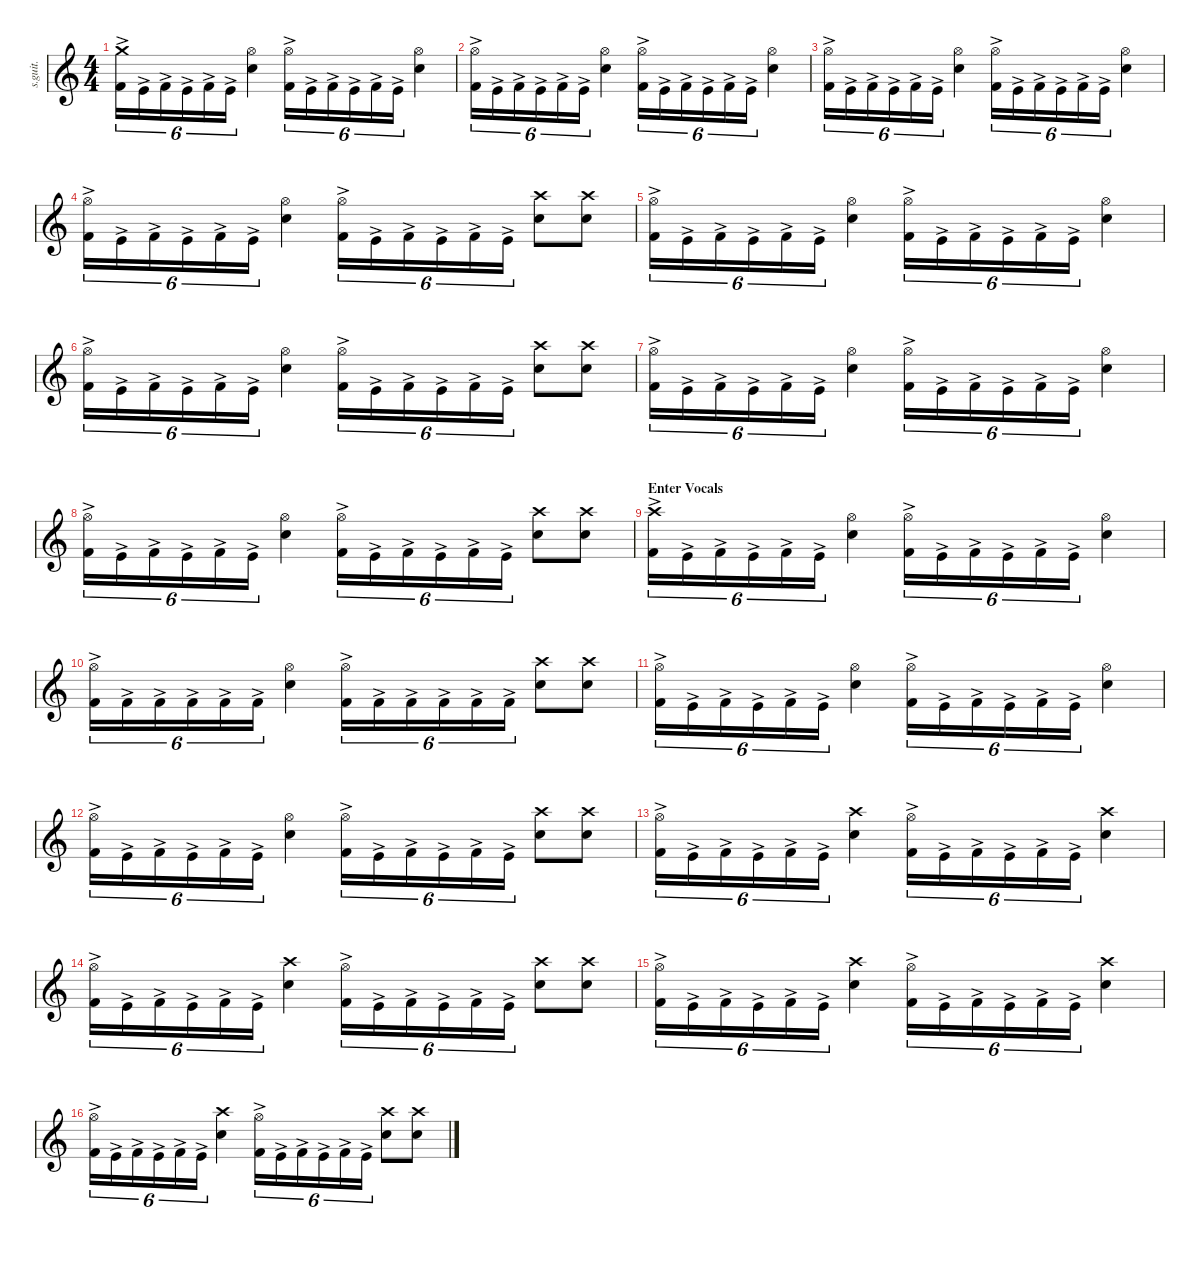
\defaultSystemsLayout 4
\hideDynamics
\bracketExtendMode nobrackets
\track ("Lars Ulrich - Drums" "s.guit.") {instrument percussion}
\staff {score}
\articulation defaults
\ts (4 4)
\tempo (108 hide)
\clef g2
\ks c
("Kick (hit) 2"{ac} "Crash medium (hit)").16{tu (6 4) lyrics (0 "") lyrics (1 "") lyrics (2 "") lyrics (3 "") lyrics (4 "") dy f} "Kick (hit)"{ac}.16{tu (6 4) lyrics (0 "") lyrics (1 "") lyrics (2 "") lyrics (3 "") lyrics (4 "")} "Kick (hit) 2"{ac}.16{tu (6 4) lyrics (0 "") lyrics (1 "") lyrics (2 "") lyrics (3 "") lyrics (4 "") dy mp} "Kick (hit)"{ac}.16{tu (6 4) lyrics (0 "") lyrics (1 "") lyrics (2 "") lyrics (3 "") lyrics (4 "")} "Kick (hit) 2"{ac}.16{tu (6 4) lyrics (0 "") lyrics (1 "") lyrics (2 "") lyrics (3 "") lyrics (4 "")} "Kick (hit)"{ac}.16{tu (6 4) lyrics (0 "") lyrics (1 "") lyrics (2 "") lyrics (3 "") lyrics (4 "")} ("Hi-Hat (open)" "Snare (hit) 2").4{lyrics (0 "") lyrics (1 "") lyrics (2 "") lyrics (3 "") lyrics (4 "") dy f} ("Hi-Hat (open)" "Kick (hit) 2"{ac}).16{tu (6 4) lyrics (0 "") lyrics (1 "") lyrics (2 "") lyrics (3 "") lyrics (4 "")} "Kick (hit)"{ac}.16{tu (6 4) lyrics (0 "") lyrics (1 "") lyrics (2 "") lyrics (3 "") lyrics (4 "")} "Kick (hit) 2"{ac}.16{tu (6 4) lyrics (0 "") lyrics (1 "") lyrics (2 "") lyrics (3 "") lyrics (4 "") dy mp} "Kick (hit)"{ac}.16{tu (6 4) lyrics (0 "") lyrics (1 "") lyrics (2 "") lyrics (3 "") lyrics (4 "")} "Kick (hit) 2"{ac}.16{tu (6 4) lyrics (0 "") lyrics (1 "") lyrics (2 "") lyrics (3 "") lyrics (4 "")} "Kick (hit)"{ac}.16{tu (6 4) lyrics (0 "") lyrics (1 "") lyrics (2 "") lyrics (3 "") lyrics (4 "")} ("Hi-Hat (open)" "Snare (hit) 2").4{lyrics (0 "") lyrics (1 "") lyrics (2 "") lyrics (3 "") lyrics (4 "") dy f} |
("Hi-Hat (open)" "Kick (hit) 2"{ac}).16{tu (6 4) lyrics (0 "") lyrics (1 "") lyrics (2 "") lyrics (3 "") lyrics (4 "")} "Kick (hit)"{ac}.16{tu (6 4) lyrics (0 "") lyrics (1 "") lyrics (2 "") lyrics (3 "") lyrics (4 "")} "Kick (hit) 2"{ac}.16{tu (6 4) lyrics (0 "") lyrics (1 "") lyrics (2 "") lyrics (3 "") lyrics (4 "") dy mp} "Kick (hit)"{ac}.16{tu (6 4) lyrics (0 "") lyrics (1 "") lyrics (2 "") lyrics (3 "") lyrics (4 "")} "Kick (hit) 2"{ac}.16{tu (6 4) lyrics (0 "") lyrics (1 "") lyrics (2 "") lyrics (3 "") lyrics (4 "")} "Kick (hit)"{ac}.16{tu (6 4) lyrics (0 "") lyrics (1 "") lyrics (2 "") lyrics (3 "") lyrics (4 "")} ("Hi-Hat (open)" "Snare (hit) 2").4{lyrics (0 "") lyrics (1 "") lyrics (2 "") lyrics (3 "") lyrics (4 "") dy f} ("Hi-Hat (open)" "Kick (hit) 2"{ac}).16{tu (6 4) lyrics (0 "") lyrics (1 "") lyrics (2 "") lyrics (3 "") lyrics (4 "")} "Kick (hit)"{ac}.16{tu (6 4) lyrics (0 "") lyrics (1 "") lyrics (2 "") lyrics (3 "") lyrics (4 "")} "Kick (hit) 2"{ac}.16{tu (6 4) lyrics (0 "") lyrics (1 "") lyrics (2 "") lyrics (3 "") lyrics (4 "") dy mp} "Kick (hit)"{ac}.16{tu (6 4) lyrics (0 "") lyrics (1 "") lyrics (2 "") lyrics (3 "") lyrics (4 "")} "Kick (hit) 2"{ac}.16{tu (6 4) lyrics (0 "") lyrics (1 "") lyrics (2 "") lyrics (3 "") lyrics (4 "")} "Kick (hit)"{ac}.16{tu (6 4) lyrics (0 "") lyrics (1 "") lyrics (2 "") lyrics (3 "") lyrics (4 "")} ("Hi-Hat (open)" "Snare (hit) 2").4{lyrics (0 "") lyrics (1 "") lyrics (2 "") lyrics (3 "") lyrics (4 "") dy f} |
("Hi-Hat (open)" "Kick (hit) 2"{ac}).16{tu (6 4) lyrics (0 "") lyrics (1 "") lyrics (2 "") lyrics (3 "") lyrics (4 "")} "Kick (hit)"{ac}.16{tu (6 4) lyrics (0 "") lyrics (1 "") lyrics (2 "") lyrics (3 "") lyrics (4 "")} "Kick (hit) 2"{ac}.16{tu (6 4) lyrics (0 "") lyrics (1 "") lyrics (2 "") lyrics (3 "") lyrics (4 "") dy mp} "Kick (hit)"{ac}.16{tu (6 4) lyrics (0 "") lyrics (1 "") lyrics (2 "") lyrics (3 "") lyrics (4 "")} "Kick (hit) 2"{ac}.16{tu (6 4) lyrics (0 "") lyrics (1 "") lyrics (2 "") lyrics (3 "") lyrics (4 "")} "Kick (hit)"{ac}.16{tu (6 4) lyrics (0 "") lyrics (1 "") lyrics (2 "") lyrics (3 "") lyrics (4 "")} ("Hi-Hat (open)" "Snare (hit) 2").4{lyrics (0 "") lyrics (1 "") lyrics (2 "") lyrics (3 "") lyrics (4 "") dy f} ("Hi-Hat (open)" "Kick (hit) 2"{ac}).16{tu (6 4) lyrics (0 "") lyrics (1 "") lyrics (2 "") lyrics (3 "") lyrics (4 "")} "Kick (hit)"{ac}.16{tu (6 4) lyrics (0 "") lyrics (1 "") lyrics (2 "") lyrics (3 "") lyrics (4 "")} "Kick (hit) 2"{ac}.16{tu (6 4) lyrics (0 "") lyrics (1 "") lyrics (2 "") lyrics (3 "") lyrics (4 "") dy mp} "Kick (hit)"{ac}.16{tu (6 4) lyrics (0 "") lyrics (1 "") lyrics (2 "") lyrics (3 "") lyrics (4 "")} "Kick (hit) 2"{ac}.16{tu (6 4) lyrics (0 "") lyrics (1 "") lyrics (2 "") lyrics (3 "") lyrics (4 "")} "Kick (hit)"{ac}.16{tu (6 4) lyrics (0 "") lyrics (1 "") lyrics (2 "") lyrics (3 "") lyrics (4 "")} ("Hi-Hat (open)" "Snare (hit) 2").4{lyrics (0 "") lyrics (1 "") lyrics (2 "") lyrics (3 "") lyrics (4 "") dy f} |
("Hi-Hat (open)" "Kick (hit) 2"{ac}).16{tu (6 4) lyrics (0 "") lyrics (1 "") lyrics (2 "") lyrics (3 "") lyrics (4 "")} "Kick (hit)"{ac}.16{tu (6 4) lyrics (0 "") lyrics (1 "") lyrics (2 "") lyrics (3 "") lyrics (4 "")} "Kick (hit) 2"{ac}.16{tu (6 4) lyrics (0 "") lyrics (1 "") lyrics (2 "") lyrics (3 "") lyrics (4 "") dy mp} "Kick (hit)"{ac}.16{tu (6 4) lyrics (0 "") lyrics (1 "") lyrics (2 "") lyrics (3 "") lyrics (4 "")} "Kick (hit) 2"{ac}.16{tu (6 4) lyrics (0 "") lyrics (1 "") lyrics (2 "") lyrics (3 "") lyrics (4 "")} "Kick (hit)"{ac}.16{tu (6 4) lyrics (0 "") lyrics (1 "") lyrics (2 "") lyrics (3 "") lyrics (4 "")} ("Hi-Hat (open)" "Snare (hit) 2").4{lyrics (0 "") lyrics (1 "") lyrics (2 "") lyrics (3 "") lyrics (4 "") dy f} ("Hi-Hat (open)" "Kick (hit) 2"{ac}).16{tu (6 4) lyrics (0 "") lyrics (1 "") lyrics (2 "") lyrics (3 "") lyrics (4 "")} "Kick (hit)"{ac}.16{tu (6 4) lyrics (0 "") lyrics (1 "") lyrics (2 "") lyrics (3 "") lyrics (4 "")} "Kick (hit) 2"{ac}.16{tu (6 4) lyrics (0 "") lyrics (1 "") lyrics (2 "") lyrics (3 "") lyrics (4 "") dy mp} "Kick (hit)"{ac}.16{tu (6 4) lyrics (0 "") lyrics (1 "") lyrics (2 "") lyrics (3 "") lyrics (4 "")} "Kick (hit) 2"{ac}.16{tu (6 4) lyrics (0 "") lyrics (1 "") lyrics (2 "") lyrics (3 "") lyrics (4 "")} "Kick (hit)"{ac}.16{tu (6 4) lyrics (0 "") lyrics (1 "") lyrics (2 "") lyrics (3 "") lyrics (4 "")} ("Snare (hit) 2" "Crash high (hit)").8{lyrics (0 "") lyrics (1 "") lyrics (2 "") lyrics (3 "") lyrics (4 "") dy f} ("Snare (hit) 2" "Crash high (hit)").8{lyrics (0 "") lyrics (1 "") lyrics (2 "") lyrics (3 "") lyrics (4 "")} |
("Hi-Hat (open)" "Kick (hit) 2"{ac}).16{tu (6 4) lyrics (0 "") lyrics (1 "") lyrics (2 "") lyrics (3 "") lyrics (4 "")} "Kick (hit)"{ac}.16{tu (6 4) lyrics (0 "") lyrics (1 "") lyrics (2 "") lyrics (3 "") lyrics (4 "")} "Kick (hit) 2"{ac}.16{tu (6 4) lyrics (0 "") lyrics (1 "") lyrics (2 "") lyrics (3 "") lyrics (4 "") dy mp} "Kick (hit)"{ac}.16{tu (6 4) lyrics (0 "") lyrics (1 "") lyrics (2 "") lyrics (3 "") lyrics (4 "")} "Kick (hit) 2"{ac}.16{tu (6 4) lyrics (0 "") lyrics (1 "") lyrics (2 "") lyrics (3 "") lyrics (4 "")} "Kick (hit)"{ac}.16{tu (6 4) lyrics (0 "") lyrics (1 "") lyrics (2 "") lyrics (3 "") lyrics (4 "")} ("Hi-Hat (open)" "Snare (hit) 2").4{lyrics (0 "") lyrics (1 "") lyrics (2 "") lyrics (3 "") lyrics (4 "") dy f} ("Hi-Hat (open)" "Kick (hit) 2"{ac}).16{tu (6 4) lyrics (0 "") lyrics (1 "") lyrics (2 "") lyrics (3 "") lyrics (4 "")} "Kick (hit)"{ac}.16{tu (6 4) lyrics (0 "") lyrics (1 "") lyrics (2 "") lyrics (3 "") lyrics (4 "")} "Kick (hit) 2"{ac}.16{tu (6 4) lyrics (0 "") lyrics (1 "") lyrics (2 "") lyrics (3 "") lyrics (4 "") dy mp} "Kick (hit)"{ac}.16{tu (6 4) lyrics (0 "") lyrics (1 "") lyrics (2 "") lyrics (3 "") lyrics (4 "")} "Kick (hit) 2"{ac}.16{tu (6 4) lyrics (0 "") lyrics (1 "") lyrics (2 "") lyrics (3 "") lyrics (4 "")} "Kick (hit)"{ac}.16{tu (6 4) lyrics (0 "") lyrics (1 "") lyrics (2 "") lyrics (3 "") lyrics (4 "")} ("Hi-Hat (open)" "Snare (hit) 2").4{lyrics (0 "") lyrics (1 "") lyrics (2 "") lyrics (3 "") lyrics (4 "") dy f} |
("Hi-Hat (open)" "Kick (hit) 2"{ac}).16{tu (6 4) lyrics (0 "") lyrics (1 "") lyrics (2 "") lyrics (3 "") lyrics (4 "")} "Kick (hit)"{ac}.16{tu (6 4) lyrics (0 "") lyrics (1 "") lyrics (2 "") lyrics (3 "") lyrics (4 "")} "Kick (hit) 2"{ac}.16{tu (6 4) lyrics (0 "") lyrics (1 "") lyrics (2 "") lyrics (3 "") lyrics (4 "") dy mp} "Kick (hit)"{ac}.16{tu (6 4) lyrics (0 "") lyrics (1 "") lyrics (2 "") lyrics (3 "") lyrics (4 "")} "Kick (hit) 2"{ac}.16{tu (6 4) lyrics (0 "") lyrics (1 "") lyrics (2 "") lyrics (3 "") lyrics (4 "")} "Kick (hit)"{ac}.16{tu (6 4) lyrics (0 "") lyrics (1 "") lyrics (2 "") lyrics (3 "") lyrics (4 "")} ("Hi-Hat (open)" "Snare (hit) 2").4{lyrics (0 "") lyrics (1 "") lyrics (2 "") lyrics (3 "") lyrics (4 "") dy f} ("Hi-Hat (open)" "Kick (hit) 2"{ac}).16{tu (6 4) lyrics (0 "") lyrics (1 "") lyrics (2 "") lyrics (3 "") lyrics (4 "")} "Kick (hit)"{ac}.16{tu (6 4) lyrics (0 "") lyrics (1 "") lyrics (2 "") lyrics (3 "") lyrics (4 "")} "Kick (hit) 2"{ac}.16{tu (6 4) lyrics (0 "") lyrics (1 "") lyrics (2 "") lyrics (3 "") lyrics (4 "") dy mp} "Kick (hit)"{ac}.16{tu (6 4) lyrics (0 "") lyrics (1 "") lyrics (2 "") lyrics (3 "") lyrics (4 "")} "Kick (hit) 2"{ac}.16{tu (6 4) lyrics (0 "") lyrics (1 "") lyrics (2 "") lyrics (3 "") lyrics (4 "")} "Kick (hit)"{ac}.16{tu (6 4) lyrics (0 "") lyrics (1 "") lyrics (2 "") lyrics (3 "") lyrics (4 "")} ("Snare (hit) 2" "Crash high (hit)").8{lyrics (0 "") lyrics (1 "") lyrics (2 "") lyrics (3 "") lyrics (4 "") dy f} ("Snare (hit) 2" "Crash high (hit)").8{lyrics (0 "") lyrics (1 "") lyrics (2 "") lyrics (3 "") lyrics (4 "")} |
("Hi-Hat (open)" "Kick (hit) 2"{ac}).16{tu (6 4) lyrics (0 "") lyrics (1 "") lyrics (2 "") lyrics (3 "") lyrics (4 "")} "Kick (hit)"{ac}.16{tu (6 4) lyrics (0 "") lyrics (1 "") lyrics (2 "") lyrics (3 "") lyrics (4 "")} "Kick (hit) 2"{ac}.16{tu (6 4) lyrics (0 "") lyrics (1 "") lyrics (2 "") lyrics (3 "") lyrics (4 "") dy mp} "Kick (hit)"{ac}.16{tu (6 4) lyrics (0 "") lyrics (1 "") lyrics (2 "") lyrics (3 "") lyrics (4 "")} "Kick (hit) 2"{ac}.16{tu (6 4) lyrics (0 "") lyrics (1 "") lyrics (2 "") lyrics (3 "") lyrics (4 "")} "Kick (hit)"{ac}.16{tu (6 4) lyrics (0 "") lyrics (1 "") lyrics (2 "") lyrics (3 "") lyrics (4 "")} ("Hi-Hat (open)" "Snare (hit) 2").4{lyrics (0 "") lyrics (1 "") lyrics (2 "") lyrics (3 "") lyrics (4 "") dy f} ("Hi-Hat (open)" "Kick (hit) 2"{ac}).16{tu (6 4) lyrics (0 "") lyrics (1 "") lyrics (2 "") lyrics (3 "") lyrics (4 "")} "Kick (hit)"{ac}.16{tu (6 4) lyrics (0 "") lyrics (1 "") lyrics (2 "") lyrics (3 "") lyrics (4 "")} "Kick (hit) 2"{ac}.16{tu (6 4) lyrics (0 "") lyrics (1 "") lyrics (2 "") lyrics (3 "") lyrics (4 "") dy mp} "Kick (hit)"{ac}.16{tu (6 4) lyrics (0 "") lyrics (1 "") lyrics (2 "") lyrics (3 "") lyrics (4 "")} "Kick (hit) 2"{ac}.16{tu (6 4) lyrics (0 "") lyrics (1 "") lyrics (2 "") lyrics (3 "") lyrics (4 "")} "Kick (hit)"{ac}.16{tu (6 4) lyrics (0 "") lyrics (1 "") lyrics (2 "") lyrics (3 "") lyrics (4 "")} ("Hi-Hat (open)" "Snare (hit) 2").4{lyrics (0 "") lyrics (1 "") lyrics (2 "") lyrics (3 "") lyrics (4 "") dy f} |
("Hi-Hat (open)" "Kick (hit) 2"{ac}).16{tu (6 4) lyrics (0 "") lyrics (1 "") lyrics (2 "") lyrics (3 "") lyrics (4 "")} "Kick (hit)"{ac}.16{tu (6 4) lyrics (0 "") lyrics (1 "") lyrics (2 "") lyrics (3 "") lyrics (4 "")} "Kick (hit) 2"{ac}.16{tu (6 4) lyrics (0 "") lyrics (1 "") lyrics (2 "") lyrics (3 "") lyrics (4 "") dy mp} "Kick (hit)"{ac}.16{tu (6 4) lyrics (0 "") lyrics (1 "") lyrics (2 "") lyrics (3 "") lyrics (4 "")} "Kick (hit) 2"{ac}.16{tu (6 4) lyrics (0 "") lyrics (1 "") lyrics (2 "") lyrics (3 "") lyrics (4 "")} "Kick (hit)"{ac}.16{tu (6 4) lyrics (0 "") lyrics (1 "") lyrics (2 "") lyrics (3 "") lyrics (4 "")} ("Hi-Hat (open)" "Snare (hit) 2").4{lyrics (0 "") lyrics (1 "") lyrics (2 "") lyrics (3 "") lyrics (4 "") dy f} ("Hi-Hat (open)" "Kick (hit) 2"{ac}).16{tu (6 4) lyrics (0 "") lyrics (1 "") lyrics (2 "") lyrics (3 "") lyrics (4 "")} "Kick (hit)"{ac}.16{tu (6 4) lyrics (0 "") lyrics (1 "") lyrics (2 "") lyrics (3 "") lyrics (4 "")} "Kick (hit) 2"{ac}.16{tu (6 4) lyrics (0 "") lyrics (1 "") lyrics (2 "") lyrics (3 "") lyrics (4 "") dy mp} "Kick (hit)"{ac}.16{tu (6 4) lyrics (0 "") lyrics (1 "") lyrics (2 "") lyrics (3 "") lyrics (4 "")} "Kick (hit) 2"{ac}.16{tu (6 4) lyrics (0 "") lyrics (1 "") lyrics (2 "") lyrics (3 "") lyrics (4 "")} "Kick (hit)"{ac}.16{tu (6 4) lyrics (0 "") lyrics (1 "") lyrics (2 "") lyrics (3 "") lyrics (4 "")} ("Snare (hit) 2" "Crash high (hit)").8{lyrics (0 "") lyrics (1 "") lyrics (2 "") lyrics (3 "") lyrics (4 "") dy f} ("Snare (hit) 2" "Crash high (hit)").8{lyrics (0 "") lyrics (1 "") lyrics (2 "") lyrics (3 "") lyrics (4 "")} |
\section ("" "Enter Vocals")
("Kick (hit) 2"{ac} "Crash high (hit)").16{tu (6 4) lyrics (0 "") lyrics (1 "") lyrics (2 "") lyrics (3 "") lyrics (4 "")} "Kick (hit)"{ac}.16{tu (6 4) lyrics (0 "") lyrics (1 "") lyrics (2 "") lyrics (3 "") lyrics (4 "")} "Kick (hit) 2"{ac}.16{tu (6 4) lyrics (0 "") lyrics (1 "") lyrics (2 "") lyrics (3 "") lyrics (4 "") dy mp} "Kick (hit)"{ac}.16{tu (6 4) lyrics (0 "") lyrics (1 "") lyrics (2 "") lyrics (3 "") lyrics (4 "")} "Kick (hit) 2"{ac}.16{tu (6 4) lyrics (0 "") lyrics (1 "") lyrics (2 "") lyrics (3 "") lyrics (4 "")} "Kick (hit)"{ac}.16{tu (6 4) lyrics (0 "") lyrics (1 "") lyrics (2 "") lyrics (3 "") lyrics (4 "")} ("Hi-Hat (open)" "Snare (hit) 2").4{lyrics (0 "") lyrics (1 "") lyrics (2 "") lyrics (3 "") lyrics (4 "") dy f} ("Hi-Hat (open)" "Kick (hit) 2"{ac}).16{tu (6 4) lyrics (0 "") lyrics (1 "") lyrics (2 "") lyrics (3 "") lyrics (4 "")} "Kick (hit)"{ac}.16{tu (6 4) lyrics (0 "") lyrics (1 "") lyrics (2 "") lyrics (3 "") lyrics (4 "")} "Kick (hit) 2"{ac}.16{tu (6 4) lyrics (0 "") lyrics (1 "") lyrics (2 "") lyrics (3 "") lyrics (4 "") dy mp} "Kick (hit)"{ac}.16{tu (6 4) lyrics (0 "") lyrics (1 "") lyrics (2 "") lyrics (3 "") lyrics (4 "")} "Kick (hit) 2"{ac}.16{tu (6 4) lyrics (0 "") lyrics (1 "") lyrics (2 "") lyrics (3 "") lyrics (4 "")} "Kick (hit)"{ac}.16{tu (6 4) lyrics (0 "") lyrics (1 "") lyrics (2 "") lyrics (3 "") lyrics (4 "")} ("Hi-Hat (open)" "Snare (hit) 2").4{lyrics (0 "") lyrics (1 "") lyrics (2 "") lyrics (3 "") lyrics (4 "") dy f} |
("Hi-Hat (open)" "Kick (hit) 2"{ac}).16{tu (6 4) lyrics (0 "") lyrics (1 "") lyrics (2 "") lyrics (3 "") lyrics (4 "")} "Kick (hit) 2"{ac}.16{tu (6 4) lyrics (0 "") lyrics (1 "") lyrics (2 "") lyrics (3 "") lyrics (4 "") dy mp} "Kick (hit) 2"{ac}.16{tu (6 4) lyrics (0 "") lyrics (1 "") lyrics (2 "") lyrics (3 "") lyrics (4 "")} "Kick (hit) 2"{ac}.16{tu (6 4) lyrics (0 "") lyrics (1 "") lyrics (2 "") lyrics (3 "") lyrics (4 "")} "Kick (hit) 2"{ac}.16{tu (6 4) lyrics (0 "") lyrics (1 "") lyrics (2 "") lyrics (3 "") lyrics (4 "")} "Kick (hit) 2"{ac}.16{tu (6 4) lyrics (0 "") lyrics (1 "") lyrics (2 "") lyrics (3 "") lyrics (4 "")} ("Hi-Hat (open)" "Snare (hit) 2").4{lyrics (0 "") lyrics (1 "") lyrics (2 "") lyrics (3 "") lyrics (4 "") dy f} ("Hi-Hat (open)" "Kick (hit) 2"{ac}).16{tu (6 4) lyrics (0 "") lyrics (1 "") lyrics (2 "") lyrics (3 "") lyrics (4 "")} "Kick (hit) 2"{ac}.16{tu (6 4) lyrics (0 "") lyrics (1 "") lyrics (2 "") lyrics (3 "") lyrics (4 "") dy mp} "Kick (hit) 2"{ac}.16{tu (6 4) lyrics (0 "") lyrics (1 "") lyrics (2 "") lyrics (3 "") lyrics (4 "")} "Kick (hit) 2"{ac}.16{tu (6 4) lyrics (0 "") lyrics (1 "") lyrics (2 "") lyrics (3 "") lyrics (4 "")} "Kick (hit) 2"{ac}.16{tu (6 4) lyrics (0 "") lyrics (1 "") lyrics (2 "") lyrics (3 "") lyrics (4 "")} "Kick (hit) 2"{ac}.16{tu (6 4) lyrics (0 "") lyrics (1 "") lyrics (2 "") lyrics (3 "") lyrics (4 "")} ("Snare (hit) 2" "Crash high (hit)").8{lyrics (0 "") lyrics (1 "") lyrics (2 "") lyrics (3 "") lyrics (4 "") dy f} ("Crash high (hit)" "Snare (hit) 2").8{lyrics (0 "") lyrics (1 "") lyrics (2 "") lyrics (3 "") lyrics (4 "")} |
("Hi-Hat (open)" "Kick (hit) 2"{ac}).16{tu (6 4) lyrics (0 "") lyrics (1 "") lyrics (2 "") lyrics (3 "") lyrics (4 "")} "Kick (hit)"{ac}.16{tu (6 4) lyrics (0 "") lyrics (1 "") lyrics (2 "") lyrics (3 "") lyrics (4 "")} "Kick (hit) 2"{ac}.16{tu (6 4) lyrics (0 "") lyrics (1 "") lyrics (2 "") lyrics (3 "") lyrics (4 "") dy mp} "Kick (hit)"{ac}.16{tu (6 4) lyrics (0 "") lyrics (1 "") lyrics (2 "") lyrics (3 "") lyrics (4 "")} "Kick (hit) 2"{ac}.16{tu (6 4) lyrics (0 "") lyrics (1 "") lyrics (2 "") lyrics (3 "") lyrics (4 "")} "Kick (hit)"{ac}.16{tu (6 4) lyrics (0 "") lyrics (1 "") lyrics (2 "") lyrics (3 "") lyrics (4 "")} ("Hi-Hat (open)" "Snare (hit) 2").4{lyrics (0 "") lyrics (1 "") lyrics (2 "") lyrics (3 "") lyrics (4 "") dy f} ("Hi-Hat (open)" "Kick (hit) 2"{ac}).16{tu (6 4) lyrics (0 "") lyrics (1 "") lyrics (2 "") lyrics (3 "") lyrics (4 "")} "Kick (hit)"{ac}.16{tu (6 4) lyrics (0 "") lyrics (1 "") lyrics (2 "") lyrics (3 "") lyrics (4 "")} "Kick (hit) 2"{ac}.16{tu (6 4) lyrics (0 "") lyrics (1 "") lyrics (2 "") lyrics (3 "") lyrics (4 "") dy mp} "Kick (hit)"{ac}.16{tu (6 4) lyrics (0 "") lyrics (1 "") lyrics (2 "") lyrics (3 "") lyrics (4 "")} "Kick (hit) 2"{ac}.16{tu (6 4) lyrics (0 "") lyrics (1 "") lyrics (2 "") lyrics (3 "") lyrics (4 "")} "Kick (hit)"{ac}.16{tu (6 4) lyrics (0 "") lyrics (1 "") lyrics (2 "") lyrics (3 "") lyrics (4 "")} ("Hi-Hat (open)" "Snare (hit) 2").4{lyrics (0 "") lyrics (1 "") lyrics (2 "") lyrics (3 "") lyrics (4 "") dy f} |
("Hi-Hat (open)" "Kick (hit) 2"{ac}).16{tu (6 4) lyrics (0 "") lyrics (1 "") lyrics (2 "") lyrics (3 "") lyrics (4 "")} "Kick (hit)"{ac}.16{tu (6 4) lyrics (0 "") lyrics (1 "") lyrics (2 "") lyrics (3 "") lyrics (4 "")} "Kick (hit) 2"{ac}.16{tu (6 4) lyrics (0 "") lyrics (1 "") lyrics (2 "") lyrics (3 "") lyrics (4 "") dy mp} "Kick (hit)"{ac}.16{tu (6 4) lyrics (0 "") lyrics (1 "") lyrics (2 "") lyrics (3 "") lyrics (4 "")} "Kick (hit) 2"{ac}.16{tu (6 4) lyrics (0 "") lyrics (1 "") lyrics (2 "") lyrics (3 "") lyrics (4 "")} "Kick (hit)"{ac}.16{tu (6 4) lyrics (0 "") lyrics (1 "") lyrics (2 "") lyrics (3 "") lyrics (4 "")} ("Hi-Hat (open)" "Snare (hit) 2").4{lyrics (0 "") lyrics (1 "") lyrics (2 "") lyrics (3 "") lyrics (4 "") dy f} ("Hi-Hat (open)" "Kick (hit) 2"{ac}).16{tu (6 4) lyrics (0 "") lyrics (1 "") lyrics (2 "") lyrics (3 "") lyrics (4 "")} "Kick (hit)"{ac}.16{tu (6 4) lyrics (0 "") lyrics (1 "") lyrics (2 "") lyrics (3 "") lyrics (4 "")} "Kick (hit) 2"{ac}.16{tu (6 4) lyrics (0 "") lyrics (1 "") lyrics (2 "") lyrics (3 "") lyrics (4 "") dy mp} "Kick (hit)"{ac}.16{tu (6 4) lyrics (0 "") lyrics (1 "") lyrics (2 "") lyrics (3 "") lyrics (4 "")} "Kick (hit) 2"{ac}.16{tu (6 4) lyrics (0 "") lyrics (1 "") lyrics (2 "") lyrics (3 "") lyrics (4 "")} "Kick (hit)"{ac}.16{tu (6 4) lyrics (0 "") lyrics (1 "") lyrics (2 "") lyrics (3 "") lyrics (4 "")} ("Snare (hit) 2" "Crash high (hit)").8{lyrics (0 "") lyrics (1 "") lyrics (2 "") lyrics (3 "") lyrics (4 "") dy f} ("Snare (hit) 2" "Crash high (hit)").8{lyrics (0 "") lyrics (1 "") lyrics (2 "") lyrics (3 "") lyrics (4 "")} |
("Hi-Hat (open)" "Kick (hit) 2"{ac}).16{tu (6 4) lyrics (0 "") lyrics (1 "") lyrics (2 "") lyrics (3 "") lyrics (4 "")} "Kick (hit)"{ac}.16{tu (6 4) lyrics (0 "") lyrics (1 "") lyrics (2 "") lyrics (3 "") lyrics (4 "")} "Kick (hit) 2"{ac}.16{tu (6 4) lyrics (0 "") lyrics (1 "") lyrics (2 "") lyrics (3 "") lyrics (4 "") dy mp} "Kick (hit)"{ac}.16{tu (6 4) lyrics (0 "") lyrics (1 "") lyrics (2 "") lyrics (3 "") lyrics (4 "")} "Kick (hit) 2"{ac}.16{tu (6 4) lyrics (0 "") lyrics (1 "") lyrics (2 "") lyrics (3 "") lyrics (4 "")} "Kick (hit)"{ac}.16{tu (6 4) lyrics (0 "") lyrics (1 "") lyrics (2 "") lyrics (3 "") lyrics (4 "")} ("Snare (hit) 2" "Crash high (hit)").4{lyrics (0 "") lyrics (1 "") lyrics (2 "") lyrics (3 "") lyrics (4 "") dy f} ("Hi-Hat (open)" "Kick (hit) 2"{ac}).16{tu (6 4) lyrics (0 "") lyrics (1 "") lyrics (2 "") lyrics (3 "") lyrics (4 "")} "Kick (hit)"{ac}.16{tu (6 4) lyrics (0 "") lyrics (1 "") lyrics (2 "") lyrics (3 "") lyrics (4 "")} "Kick (hit) 2"{ac}.16{tu (6 4) lyrics (0 "") lyrics (1 "") lyrics (2 "") lyrics (3 "") lyrics (4 "") dy mp} "Kick (hit)"{ac}.16{tu (6 4) lyrics (0 "") lyrics (1 "") lyrics (2 "") lyrics (3 "") lyrics (4 "")} "Kick (hit) 2"{ac}.16{tu (6 4) lyrics (0 "") lyrics (1 "") lyrics (2 "") lyrics (3 "") lyrics (4 "")} "Kick (hit)"{ac}.16{tu (6 4) lyrics (0 "") lyrics (1 "") lyrics (2 "") lyrics (3 "") lyrics (4 "")} ("Snare (hit) 2" "Crash high (hit)").4{lyrics (0 "") lyrics (1 "") lyrics (2 "") lyrics (3 "") lyrics (4 "") dy f} |
("Hi-Hat (open)" "Kick (hit) 2"{ac}).16{tu (6 4) lyrics (0 "") lyrics (1 "") lyrics (2 "") lyrics (3 "") lyrics (4 "")} "Kick (hit)"{ac}.16{tu (6 4) lyrics (0 "") lyrics (1 "") lyrics (2 "") lyrics (3 "") lyrics (4 "")} "Kick (hit) 2"{ac}.16{tu (6 4) lyrics (0 "") lyrics (1 "") lyrics (2 "") lyrics (3 "") lyrics (4 "") dy mp} "Kick (hit)"{ac}.16{tu (6 4) lyrics (0 "") lyrics (1 "") lyrics (2 "") lyrics (3 "") lyrics (4 "")} "Kick (hit) 2"{ac}.16{tu (6 4) lyrics (0 "") lyrics (1 "") lyrics (2 "") lyrics (3 "") lyrics (4 "")} "Kick (hit)"{ac}.16{tu (6 4) lyrics (0 "") lyrics (1 "") lyrics (2 "") lyrics (3 "") lyrics (4 "")} ("Snare (hit) 2" "Crash high (hit)").4{lyrics (0 "") lyrics (1 "") lyrics (2 "") lyrics (3 "") lyrics (4 "") dy f} ("Hi-Hat (open)" "Kick (hit) 2"{ac}).16{tu (6 4) lyrics (0 "") lyrics (1 "") lyrics (2 "") lyrics (3 "") lyrics (4 "")} "Kick (hit)"{ac}.16{tu (6 4) lyrics (0 "") lyrics (1 "") lyrics (2 "") lyrics (3 "") lyrics (4 "")} "Kick (hit) 2"{ac}.16{tu (6 4) lyrics (0 "") lyrics (1 "") lyrics (2 "") lyrics (3 "") lyrics (4 "") dy mp} "Kick (hit)"{ac}.16{tu (6 4) lyrics (0 "") lyrics (1 "") lyrics (2 "") lyrics (3 "") lyrics (4 "")} "Kick (hit) 2"{ac}.16{tu (6 4) lyrics (0 "") lyrics (1 "") lyrics (2 "") lyrics (3 "") lyrics (4 "")} "Kick (hit)"{ac}.16{tu (6 4) lyrics (0 "") lyrics (1 "") lyrics (2 "") lyrics (3 "") lyrics (4 "")} ("Snare (hit) 2" "Crash high (hit)").8{lyrics (0 "") lyrics (1 "") lyrics (2 "") lyrics (3 "") lyrics (4 "") dy f} ("Snare (hit) 2" "Crash high (hit)").8{lyrics (0 "") lyrics (1 "") lyrics (2 "") lyrics (3 "") lyrics (4 "")} |
("Hi-Hat (open)" "Kick (hit) 2"{ac}).16{tu (6 4) lyrics (0 "") lyrics (1 "") lyrics (2 "") lyrics (3 "") lyrics (4 "")} "Kick (hit)"{ac}.16{tu (6 4) lyrics (0 "") lyrics (1 "") lyrics (2 "") lyrics (3 "") lyrics (4 "")} "Kick (hit) 2"{ac}.16{tu (6 4) lyrics (0 "") lyrics (1 "") lyrics (2 "") lyrics (3 "") lyrics (4 "") dy mp} "Kick (hit)"{ac}.16{tu (6 4) lyrics (0 "") lyrics (1 "") lyrics (2 "") lyrics (3 "") lyrics (4 "")} "Kick (hit) 2"{ac}.16{tu (6 4) lyrics (0 "") lyrics (1 "") lyrics (2 "") lyrics (3 "") lyrics (4 "")} "Kick (hit)"{ac}.16{tu (6 4) lyrics (0 "") lyrics (1 "") lyrics (2 "") lyrics (3 "") lyrics (4 "")} ("Snare (hit) 2" "Crash high (hit)").4{lyrics (0 "") lyrics (1 "") lyrics (2 "") lyrics (3 "") lyrics (4 "") dy f} ("Hi-Hat (open)" "Kick (hit) 2"{ac}).16{tu (6 4) lyrics (0 "") lyrics (1 "") lyrics (2 "") lyrics (3 "") lyrics (4 "")} "Kick (hit)"{ac}.16{tu (6 4) lyrics (0 "") lyrics (1 "") lyrics (2 "") lyrics (3 "") lyrics (4 "")} "Kick (hit) 2"{ac}.16{tu (6 4) lyrics (0 "") lyrics (1 "") lyrics (2 "") lyrics (3 "") lyrics (4 "") dy mp} "Kick (hit)"{ac}.16{tu (6 4) lyrics (0 "") lyrics (1 "") lyrics (2 "") lyrics (3 "") lyrics (4 "")} "Kick (hit) 2"{ac}.16{tu (6 4) lyrics (0 "") lyrics (1 "") lyrics (2 "") lyrics (3 "") lyrics (4 "")} "Kick (hit)"{ac}.16{tu (6 4) lyrics (0 "") lyrics (1 "") lyrics (2 "") lyrics (3 "") lyrics (4 "")} ("Snare (hit) 2" "Crash high (hit)").4{lyrics (0 "") lyrics (1 "") lyrics (2 "") lyrics (3 "") lyrics (4 "") dy f} |
("Hi-Hat (open)" "Kick (hit) 2"{ac}).16{tu (6 4) lyrics (0 "") lyrics (1 "") lyrics (2 "") lyrics (3 "") lyrics (4 "")} "Kick (hit)"{ac}.16{tu (6 4) lyrics (0 "") lyrics (1 "") lyrics (2 "") lyrics (3 "") lyrics (4 "")} "Kick (hit) 2"{ac}.16{tu (6 4) lyrics (0 "") lyrics (1 "") lyrics (2 "") lyrics (3 "") lyrics (4 "") dy mp} "Kick (hit)"{ac}.16{tu (6 4) lyrics (0 "") lyrics (1 "") lyrics (2 "") lyrics (3 "") lyrics (4 "")} "Kick (hit) 2"{ac}.16{tu (6 4) lyrics (0 "") lyrics (1 "") lyrics (2 "") lyrics (3 "") lyrics (4 "")} "Kick (hit)"{ac}.16{tu (6 4) lyrics (0 "") lyrics (1 "") lyrics (2 "") lyrics (3 "") lyrics (4 "")} ("Snare (hit) 2" "Crash high (hit)").4{lyrics (0 "") lyrics (1 "") lyrics (2 "") lyrics (3 "") lyrics (4 "") dy f} ("Hi-Hat (open)" "Kick (hit) 2"{ac}).16{tu (6 4) lyrics (0 "") lyrics (1 "") lyrics (2 "") lyrics (3 "") lyrics (4 "")} "Kick (hit)"{ac}.16{tu (6 4) lyrics (0 "") lyrics (1 "") lyrics (2 "") lyrics (3 "") lyrics (4 "")} "Kick (hit) 2"{ac}.16{tu (6 4) lyrics (0 "") lyrics (1 "") lyrics (2 "") lyrics (3 "") lyrics (4 "") dy mp} "Kick (hit)"{ac}.16{tu (6 4) lyrics (0 "") lyrics (1 "") lyrics (2 "") lyrics (3 "") lyrics (4 "")} "Kick (hit) 2"{ac}.16{tu (6 4) lyrics (0 "") lyrics (1 "") lyrics (2 "") lyrics (3 "") lyrics (4 "")} "Kick (hit)"{ac}.16{tu (6 4) lyrics (0 "") lyrics (1 "") lyrics (2 "") lyrics (3 "") lyrics (4 "")} ("Snare (hit) 2" "Crash high (hit)").8{lyrics (0 "") lyrics (1 "") lyrics (2 "") lyrics (3 "") lyrics (4 "") dy f} ("Snare (hit) 2" "Crash high (hit)").8{lyrics (0 "") lyrics (1 "") lyrics (2 "") lyrics (3 "") lyrics (4 "")}
